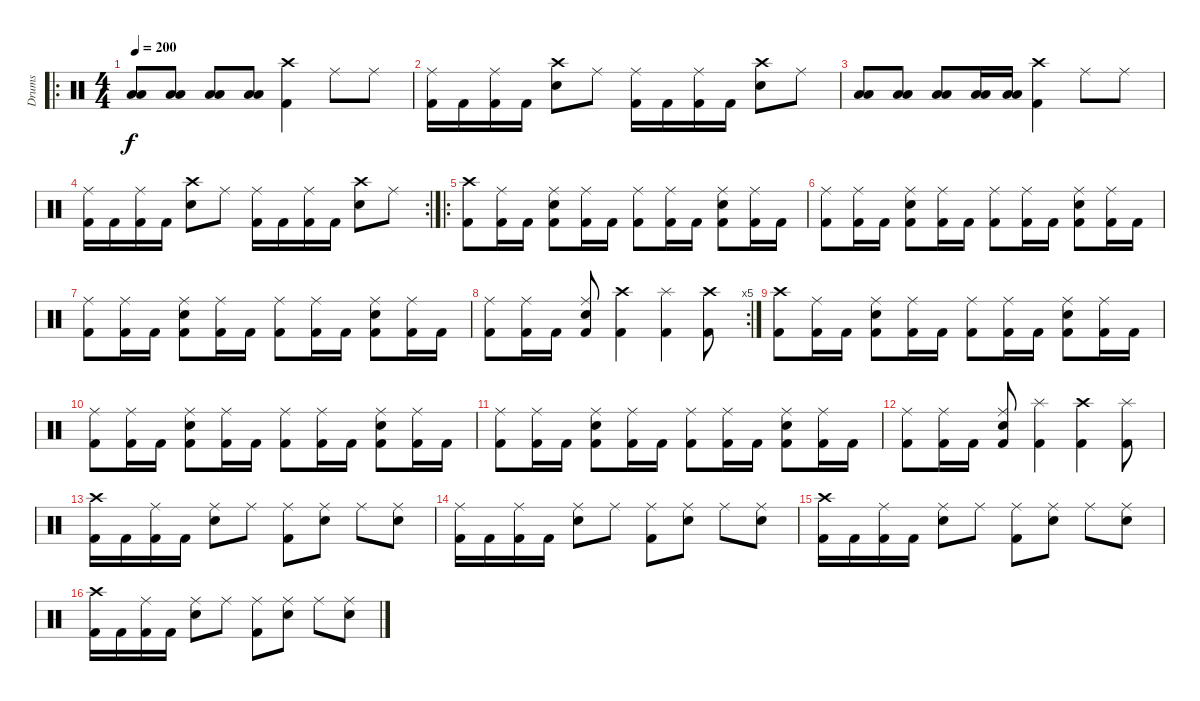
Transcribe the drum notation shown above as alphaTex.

\track ("Drums" "Drums") {instrument percussion}
\staff {score}
\articulation defaults
\ro
\ts (4 4)
\tempo 200
\clef neutral
\ks c
("Low Tom (hit)" "Low Tom (hit)").8{dy f} ("Low Tom (hit)" "Low Tom (hit)").8 ("Low Tom (hit)" "Low Tom (hit)").8 ("Low Tom (hit)" "Low Tom (hit)").8 ("Kick (hit) 2" "Crash high (hit)").4 "Ride (middle)".8 "Ride (middle)".8 |
("Kick (hit) 2" "Ride (middle)").16 "Kick (hit) 2".16 ("Kick (hit) 2" "Ride (middle)").16 "Kick (hit) 2".16 ("Snare (hit) 2" "Crash high (hit)").8 "Ride (middle)".8 ("Kick (hit) 2" "Ride (middle)").16 "Kick (hit) 2".16 ("Kick (hit) 2" "Ride (middle)").16 "Kick (hit) 2".16 ("Snare (hit) 2" "Crash high (hit)").8 "Ride (middle)".8 |
("Low Tom (hit)" "Low Tom (hit)").8 ("Low Tom (hit)" "Low Tom (hit)").8 ("Low Tom (hit)" "Low Tom (hit)").8 ("Low Tom (hit)" "Low Tom (hit)").16 ("Low Tom (hit)" "Low Tom (hit)").16 ("Kick (hit) 2" "Crash high (hit)").4 "Ride (middle)".8 "Ride (middle)".8 |
\rc 2
("Kick (hit) 2" "Ride (middle)").16 "Kick (hit) 2".16 ("Kick (hit) 2" "Ride (middle)").16 "Kick (hit) 2".16 ("Snare (hit) 2" "Crash high (hit)").8 "Ride (middle)".8 ("Kick (hit) 2" "Ride (middle)").16 "Kick (hit) 2".16 ("Kick (hit) 2" "Ride (middle)").16 "Kick (hit) 2".16 ("Snare (hit) 2" "Crash high (hit)").8 "Ride (middle)".8 |
\ro
("Kick (hit) 2" "Crash high (hit)").8 ("Kick (hit) 2" "Ride (middle)").16 "Kick (hit) 2".16 ("Kick (hit) 2" "Snare (hit) 2" "Ride (middle)").8 ("Kick (hit) 2" "Ride (middle)").16 "Kick (hit) 2".16 ("Kick (hit) 2" "Ride (middle)").8 ("Kick (hit) 2" "Ride (middle)").16 "Kick (hit) 2".16 ("Kick (hit) 2" "Snare (hit) 2" "Ride (middle)").8 ("Kick (hit) 2" "Ride (middle)").16 "Kick (hit) 2".16 |
("Kick (hit) 2" "Ride (middle)").8 ("Kick (hit) 2" "Ride (middle)").16 "Kick (hit) 2".16 ("Kick (hit) 2" "Snare (hit) 2" "Ride (middle)").8 ("Kick (hit) 2" "Ride (middle)").16 "Kick (hit) 2".16 ("Kick (hit) 2" "Ride (middle)").8 ("Kick (hit) 2" "Ride (middle)").16 "Kick (hit) 2".16 ("Kick (hit) 2" "Snare (hit) 2" "Ride (middle)").8 ("Kick (hit) 2" "Ride (middle)").16 "Kick (hit) 2".16 |
("Kick (hit) 2" "Ride (middle)").8 ("Kick (hit) 2" "Ride (middle)").16 "Kick (hit) 2".16 ("Kick (hit) 2" "Snare (hit) 2" "Ride (middle)").8 ("Kick (hit) 2" "Ride (middle)").16 "Kick (hit) 2".16 ("Kick (hit) 2" "Ride (middle)").8 ("Kick (hit) 2" "Ride (middle)").16 "Kick (hit) 2".16 ("Kick (hit) 2" "Snare (hit) 2" "Ride (middle)").8 ("Kick (hit) 2" "Ride (middle)").16 "Kick (hit) 2".16 |
\rc 5
("Kick (hit) 2" "Ride (middle)").8 ("Kick (hit) 2" "Ride (middle)").16 "Kick (hit) 2".16 ("Kick (hit) 2" "Snare (hit) 2" "Ride (middle)").8 ("Kick (hit) 2" "Crash high (hit)").4 ("Kick (hit) 2" "Splash (hit)").4 ("Kick (hit) 2" "Crash high (hit)").8 |
("Kick (hit) 2" "Crash high (hit)").8 ("Kick (hit) 2" "Ride (middle)").16 "Kick (hit) 2".16 ("Kick (hit) 2" "Snare (hit) 2" "Ride (middle)").8 ("Kick (hit) 2" "Ride (middle)").16 "Kick (hit) 2".16 ("Kick (hit) 2" "Ride (middle)").8 ("Kick (hit) 2" "Ride (middle)").16 "Kick (hit) 2".16 ("Kick (hit) 2" "Snare (hit) 2" "Ride (middle)").8 ("Kick (hit) 2" "Ride (middle)").16 "Kick (hit) 2".16 |
("Kick (hit) 2" "Ride (middle)").8 ("Kick (hit) 2" "Ride (middle)").16 "Kick (hit) 2".16 ("Kick (hit) 2" "Snare (hit) 2" "Ride (middle)").8 ("Kick (hit) 2" "Ride (middle)").16 "Kick (hit) 2".16 ("Kick (hit) 2" "Ride (middle)").8 ("Kick (hit) 2" "Ride (middle)").16 "Kick (hit) 2".16 ("Kick (hit) 2" "Snare (hit) 2" "Ride (middle)").8 ("Kick (hit) 2" "Ride (middle)").16 "Kick (hit) 2".16 |
("Kick (hit) 2" "Ride (middle)").8 ("Kick (hit) 2" "Ride (middle)").16 "Kick (hit) 2".16 ("Kick (hit) 2" "Snare (hit) 2" "Ride (middle)").8 ("Kick (hit) 2" "Ride (middle)").16 "Kick (hit) 2".16 ("Kick (hit) 2" "Ride (middle)").8 ("Kick (hit) 2" "Ride (middle)").16 "Kick (hit) 2".16 ("Kick (hit) 2" "Snare (hit) 2" "Ride (middle)").8 ("Kick (hit) 2" "Ride (middle)").16 "Kick (hit) 2".16 |
("Kick (hit) 2" "Ride (middle)").8 ("Kick (hit) 2" "Ride (middle)").16 "Kick (hit) 2".16 ("Kick (hit) 2" "Snare (hit) 2" "Ride (middle)").8 ("Kick (hit) 2" "Splash (hit)").4 ("Kick (hit) 2" "Crash high (hit)").4 ("Kick (hit) 2" "Splash (hit)").8 |
("Kick (hit) 2" "Crash high (hit)").16 "Kick (hit) 2".16 ("Kick (hit) 2" "Ride (middle)").16 "Kick (hit) 2".16 ("Snare (hit) 2" "Ride (middle)").8 "Ride (middle)".8 ("Kick (hit) 2" "Ride (middle)").8 ("Snare (hit) 2" "Ride (middle)").8 "Ride (middle)".8 ("Snare (hit) 2" "Ride (middle)").8 |
("Kick (hit) 2" "Ride (middle)").16 "Kick (hit) 2".16 ("Kick (hit) 2" "Ride (middle)").16 "Kick (hit) 2".16 ("Snare (hit) 2" "Ride (middle)").8 "Ride (middle)".8 ("Kick (hit) 2" "Ride (middle)").8 ("Snare (hit) 2" "Ride (middle)").8 "Ride (middle)".8 ("Snare (hit) 2" "Ride (middle)").8 |
("Kick (hit) 2" "Crash high (hit)").16 "Kick (hit) 2".16 ("Kick (hit) 2" "Ride (middle)").16 "Kick (hit) 2".16 ("Snare (hit) 2" "Ride (middle)").8 "Ride (middle)".8 ("Kick (hit) 2" "Ride (middle)").8 ("Snare (hit) 2" "Ride (middle)").8 "Ride (middle)".8 ("Snare (hit) 2" "Ride (middle)").8 |
("Kick (hit) 2" "Crash high (hit)").16 "Kick (hit) 2".16 ("Kick (hit) 2" "Ride (middle)").16 "Kick (hit) 2".16 ("Snare (hit) 2" "Ride (middle)").8 "Ride (middle)".8 ("Kick (hit) 2" "Ride (middle)").8 ("Snare (hit) 2" "Ride (middle)").8 "Ride (middle)".8 ("Snare (hit) 2" "Ride (middle)").8
